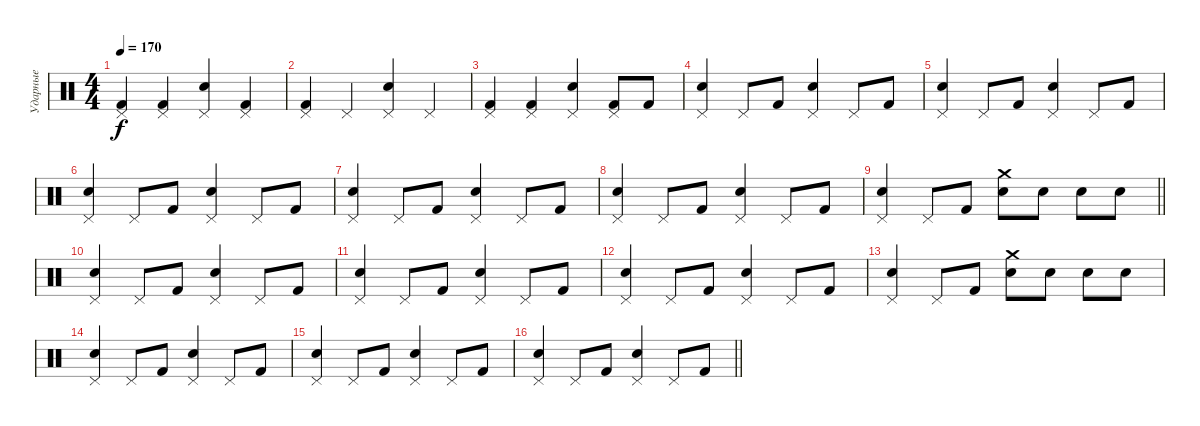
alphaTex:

\track ("Ударные" "Ударные") {instrument percussion}
\staff {score}
\articulation defaults
\ts (4 4)
\tempo 170
\clef neutral
\ks c
("Pedal Hi-Hat (hit)" "Kick (hit) 2").4{dy f} ("Pedal Hi-Hat (hit)" "Kick (hit) 2").4 ("Pedal Hi-Hat (hit)" "Snare (hit) 2").4 ("Pedal Hi-Hat (hit)" "Kick (hit) 2").4 |
("Pedal Hi-Hat (hit)" "Kick (hit) 2").4 "Pedal Hi-Hat (hit)".4 ("Pedal Hi-Hat (hit)" "Snare (hit) 2").4 "Pedal Hi-Hat (hit)".4 |
("Pedal Hi-Hat (hit)" "Kick (hit) 2").4 ("Pedal Hi-Hat (hit)" "Kick (hit) 2").4 ("Pedal Hi-Hat (hit)" "Snare (hit) 2").4 ("Pedal Hi-Hat (hit)" "Kick (hit) 2").8 "Kick (hit) 2".8 |
("Pedal Hi-Hat (hit)" "Snare (hit) 2").4 "Pedal Hi-Hat (hit)".8 "Kick (hit) 2".8 ("Pedal Hi-Hat (hit)" "Snare (hit) 2").4 "Pedal Hi-Hat (hit)".8 "Kick (hit) 2".8 |
("Pedal Hi-Hat (hit)" "Snare (hit) 2").4 "Pedal Hi-Hat (hit)".8 "Kick (hit) 2".8 ("Pedal Hi-Hat (hit)" "Snare (hit) 2").4 "Pedal Hi-Hat (hit)".8 "Kick (hit) 2".8 |
("Pedal Hi-Hat (hit)" "Snare (hit) 2").4 "Pedal Hi-Hat (hit)".8 "Kick (hit) 2".8 ("Pedal Hi-Hat (hit)" "Snare (hit) 2").4 "Pedal Hi-Hat (hit)".8 "Kick (hit) 2".8 |
("Pedal Hi-Hat (hit)" "Snare (hit) 2").4 "Pedal Hi-Hat (hit)".8 "Kick (hit) 2".8 ("Pedal Hi-Hat (hit)" "Snare (hit) 2").4 "Pedal Hi-Hat (hit)".8 "Kick (hit) 2".8 |
("Pedal Hi-Hat (hit)" "Snare (hit) 2").4 "Pedal Hi-Hat (hit)".8 "Kick (hit) 2".8 ("Pedal Hi-Hat (hit)" "Snare (hit) 2").4 "Pedal Hi-Hat (hit)".8 "Kick (hit) 2".8 |
\barLineRight lightlight
("Pedal Hi-Hat (hit)" "Snare (hit) 2").4 "Pedal Hi-Hat (hit)".8 "Kick (hit) 2".8 ("Crash medium (hit)" "Snare (hit) 2").8 "Snare (hit) 2".8 "Snare (hit) 2".8 "Snare (hit) 2".8 |
("Pedal Hi-Hat (hit)" "Snare (hit) 2").4 "Pedal Hi-Hat (hit)".8 "Kick (hit) 2".8 ("Pedal Hi-Hat (hit)" "Snare (hit) 2").4 "Pedal Hi-Hat (hit)".8 "Kick (hit) 2".8 |
("Pedal Hi-Hat (hit)" "Snare (hit) 2").4 "Pedal Hi-Hat (hit)".8 "Kick (hit) 2".8 ("Pedal Hi-Hat (hit)" "Snare (hit) 2").4 "Pedal Hi-Hat (hit)".8 "Kick (hit) 2".8 |
("Pedal Hi-Hat (hit)" "Snare (hit) 2").4 "Pedal Hi-Hat (hit)".8 "Kick (hit) 2".8 ("Pedal Hi-Hat (hit)" "Snare (hit) 2").4 "Pedal Hi-Hat (hit)".8 "Kick (hit) 2".8 |
("Pedal Hi-Hat (hit)" "Snare (hit) 2").4 "Pedal Hi-Hat (hit)".8 "Kick (hit) 2".8 ("Crash medium (hit)" "Snare (hit) 2").8 "Snare (hit) 2".8 "Snare (hit) 2".8 "Snare (hit) 2".8 |
("Pedal Hi-Hat (hit)" "Snare (hit) 2").4 "Pedal Hi-Hat (hit)".8 "Kick (hit) 2".8 ("Pedal Hi-Hat (hit)" "Snare (hit) 2").4 "Pedal Hi-Hat (hit)".8 "Kick (hit) 2".8 |
("Pedal Hi-Hat (hit)" "Snare (hit) 2").4 "Pedal Hi-Hat (hit)".8 "Kick (hit) 2".8 ("Pedal Hi-Hat (hit)" "Snare (hit) 2").4 "Pedal Hi-Hat (hit)".8 "Kick (hit) 2".8 |
\barLineRight lightlight
("Pedal Hi-Hat (hit)" "Snare (hit) 2").4 "Pedal Hi-Hat (hit)".8 "Kick (hit) 2".8 ("Pedal Hi-Hat (hit)" "Snare (hit) 2").4 "Pedal Hi-Hat (hit)".8 "Kick (hit) 2".8
